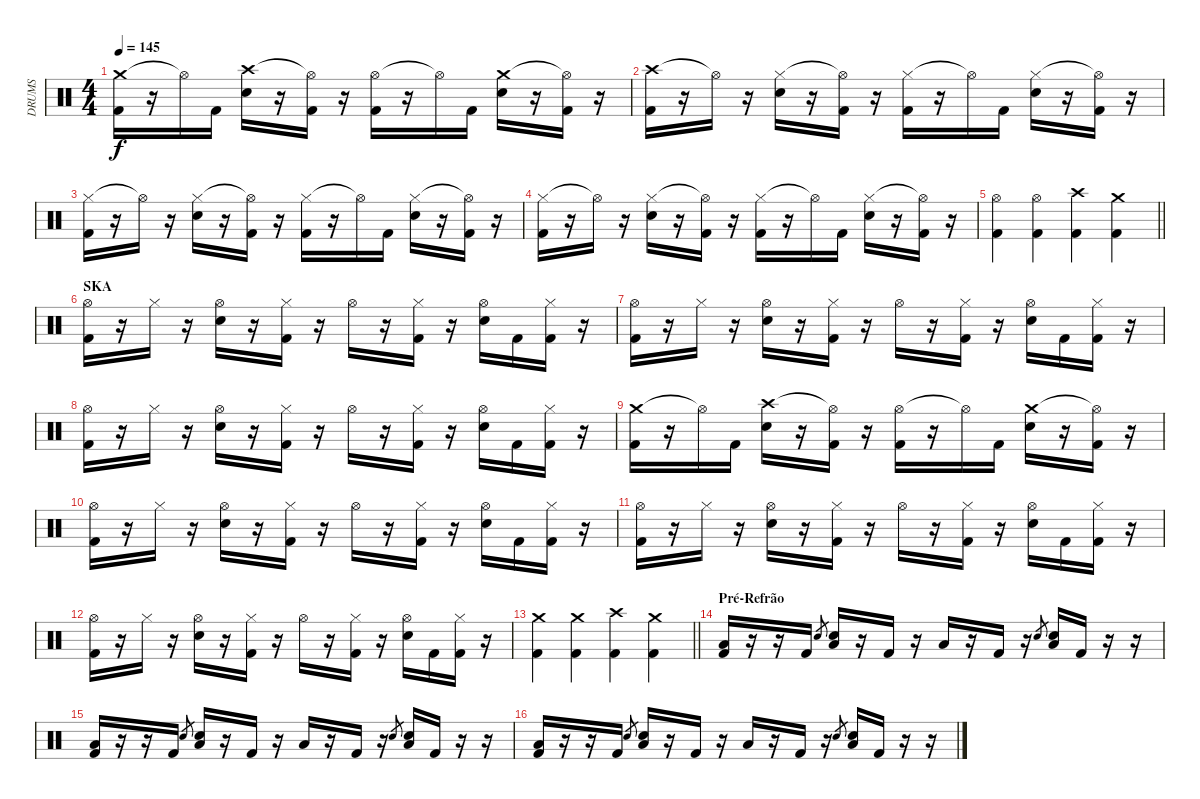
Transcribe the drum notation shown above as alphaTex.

\track ("DRUMS" "DRUMS") {instrument percussion}
\staff {score}
\articulation defaults
\ts (4 4)
\tempo 145
\clef neutral
\ks c
("Crash medium (hit)" "Kick (hit) 2").16{dy f} r.16 "Hi-Hat (open)"{t}.16 "Kick (hit) 2".16 ("Crash high (hit)" "Electric Snare (hit)").16 r.16 ("Hi-Hat (open)"{t} "Kick (hit) 2").16 r.16 ("Hi-Hat (open)" "Kick (hit) 2").16 r.16 "Hi-Hat (open)"{t}.16 "Kick (hit) 2".16 ("Crash medium (hit)" "Electric Snare (hit)").16 r.16 ("Hi-Hat (open)"{t} "Kick (hit) 2").16 r.16 |
("Crash high (hit)" "Kick (hit) 2").16 r.16 "Hi-Hat (open)"{t}.16 r.16 ("Hi-Hat (closed)" "Electric Snare (hit)").16 r.16 ("Hi-Hat (open)"{t} "Kick (hit) 2").16 r.16 ("Hi-Hat (closed)" "Kick (hit) 2").16 r.16 "Hi-Hat (open)"{t}.16 "Kick (hit) 2".16 ("Hi-Hat (closed)" "Electric Snare (hit)").16 r.16 ("Hi-Hat (open)"{t} "Kick (hit) 2").16 r.16 |
("Hi-Hat (closed)" "Kick (hit) 2").16 r.16 "Hi-Hat (open)"{t}.16 r.16 ("Hi-Hat (closed)" "Electric Snare (hit)").16 r.16 ("Hi-Hat (open)"{t} "Kick (hit) 2").16 r.16 ("Hi-Hat (closed)" "Kick (hit) 2").16 r.16 "Hi-Hat (open)"{t}.16 "Kick (hit) 2".16 ("Hi-Hat (closed)" "Electric Snare (hit)").16 r.16 ("Hi-Hat (open)"{t} "Kick (hit) 2").16 r.16 |
("Hi-Hat (closed)" "Kick (hit) 2").16 r.16 "Hi-Hat (open)"{t}.16 r.16 ("Hi-Hat (closed)" "Electric Snare (hit)").16 r.16 ("Hi-Hat (open)"{t} "Kick (hit) 2").16 r.16 ("Hi-Hat (closed)" "Kick (hit) 2").16 r.16 "Hi-Hat (open)"{t}.16 "Kick (hit) 2".16 ("Hi-Hat (closed)" "Electric Snare (hit)").16 r.16 ("Hi-Hat (open)"{t} "Kick (hit) 2").16 r.16 |
\barLineRight lightlight
("Hi-Hat (open)" "Kick (hit) 2").4 ("Hi-Hat (open)" "Kick (hit) 2").4 ("Crash high (hit)" "Kick (hit) 2").4 ("Crash medium (hit)" "Kick (hit) 2").4 |
\section ("" "SKA")
("Hi-Hat (open)" "Kick (hit) 2").16 r.16 "Hi-Hat (closed)".16 r.16 ("Hi-Hat (open)" "Electric Snare (hit)").16 r.16 ("Hi-Hat (closed)" "Kick (hit) 2").16 r.16 "Hi-Hat (open)".16 r.16 ("Hi-Hat (closed)" "Kick (hit) 2").16 r.16 ("Hi-Hat (open)" "Electric Snare (hit)").16 "Kick (hit) 2".16 ("Hi-Hat (closed)" "Kick (hit) 2").16 r.16 |
("Hi-Hat (open)" "Kick (hit) 2").16 r.16 "Hi-Hat (closed)".16 r.16 ("Hi-Hat (open)" "Electric Snare (hit)").16 r.16 ("Hi-Hat (closed)" "Kick (hit) 2").16 r.16 "Hi-Hat (open)".16 r.16 ("Hi-Hat (closed)" "Kick (hit) 2").16 r.16 ("Hi-Hat (open)" "Electric Snare (hit)").16 "Kick (hit) 2".16 ("Hi-Hat (closed)" "Kick (hit) 2").16 r.16 |
("Hi-Hat (open)" "Kick (hit) 2").16 r.16 "Hi-Hat (closed)".16 r.16 ("Hi-Hat (open)" "Electric Snare (hit)").16 r.16 ("Hi-Hat (closed)" "Kick (hit) 2").16 r.16 "Hi-Hat (open)".16 r.16 ("Hi-Hat (closed)" "Kick (hit) 2").16 r.16 ("Hi-Hat (open)" "Electric Snare (hit)").16 "Kick (hit) 2".16 ("Hi-Hat (closed)" "Kick (hit) 2").16 r.16 |
("Crash medium (hit)" "Kick (hit) 2").16 r.16 "Hi-Hat (open)"{t}.16 "Kick (hit) 2".16 ("Crash high (hit)" "Electric Snare (hit)").16 r.16 ("Hi-Hat (open)"{t} "Kick (hit) 2").16 r.16 ("Hi-Hat (open)" "Kick (hit) 2").16 r.16 "Hi-Hat (open)"{t}.16 "Kick (hit) 2".16 ("Crash medium (hit)" "Electric Snare (hit)").16 r.16 ("Hi-Hat (open)"{t} "Kick (hit) 2").16 r.16 |
("Hi-Hat (open)" "Kick (hit) 2").16 r.16 "Hi-Hat (closed)".16 r.16 ("Hi-Hat (open)" "Electric Snare (hit)").16 r.16 ("Hi-Hat (closed)" "Kick (hit) 2").16 r.16 "Hi-Hat (open)".16 r.16 ("Hi-Hat (closed)" "Kick (hit) 2").16 r.16 ("Hi-Hat (open)" "Electric Snare (hit)").16 "Kick (hit) 2".16 ("Hi-Hat (closed)" "Kick (hit) 2").16 r.16 |
("Hi-Hat (open)" "Kick (hit) 2").16 r.16 "Hi-Hat (closed)".16 r.16 ("Hi-Hat (open)" "Electric Snare (hit)").16 r.16 ("Hi-Hat (closed)" "Kick (hit) 2").16 r.16 "Hi-Hat (open)".16 r.16 ("Hi-Hat (closed)" "Kick (hit) 2").16 r.16 ("Hi-Hat (open)" "Electric Snare (hit)").16 "Kick (hit) 2".16 ("Hi-Hat (closed)" "Kick (hit) 2").16 r.16 |
("Hi-Hat (open)" "Kick (hit) 2").16 r.16 "Hi-Hat (closed)".16 r.16 ("Hi-Hat (open)" "Electric Snare (hit)").16 r.16 ("Hi-Hat (closed)" "Kick (hit) 2").16 r.16 "Hi-Hat (open)".16 r.16 ("Hi-Hat (closed)" "Kick (hit) 2").16 r.16 ("Hi-Hat (open)" "Electric Snare (hit)").16 "Kick (hit) 2".16 ("Hi-Hat (closed)" "Kick (hit) 2").16 r.16 |
\barLineRight lightlight
("Crash medium (hit)" "Kick (hit) 2").4 ("Crash medium (hit)" "Kick (hit) 2").4 ("Crash high (hit)" "Kick (hit) 2").4 ("Crash medium (hit)" "Kick (hit) 2").4 |
\section ("" "Pré-Refrão")
("Low Tom (hit)" "Kick (hit) 2").16 r.16 r.16 "Kick (hit) 2".16 "Electric Snare (hit)".8{gr} ("Low Tom (hit)" "Electric Snare (hit)").16 r.16 "Kick (hit) 2".16 r.16 "Low Tom (hit)".16 r.16 "Kick (hit) 2".16 r.16 "Electric Snare (hit)".8{gr} ("Low Tom (hit)" "Electric Snare (hit)").16 "Kick (hit) 2".16 r.16 r.16 |
("Low Tom (hit)" "Kick (hit) 2").16 r.16 r.16 "Kick (hit) 2".16 "Electric Snare (hit)".8{gr} ("Low Tom (hit)" "Electric Snare (hit)").16 r.16 "Kick (hit) 2".16 r.16 "Low Tom (hit)".16 r.16 "Kick (hit) 2".16 r.16 "Electric Snare (hit)".8{gr} ("Low Tom (hit)" "Electric Snare (hit)").16 "Kick (hit) 2".16 r.16 r.16 |
("Low Tom (hit)" "Kick (hit) 2").16 r.16 r.16 "Kick (hit) 2".16 "Electric Snare (hit)".8{gr} ("Low Tom (hit)" "Electric Snare (hit)").16 r.16 "Kick (hit) 2".16 r.16 "Low Tom (hit)".16 r.16 "Kick (hit) 2".16 r.16 "Electric Snare (hit)".8{gr} ("Low Tom (hit)" "Electric Snare (hit)").16 "Kick (hit) 2".16 r.16 r.16
